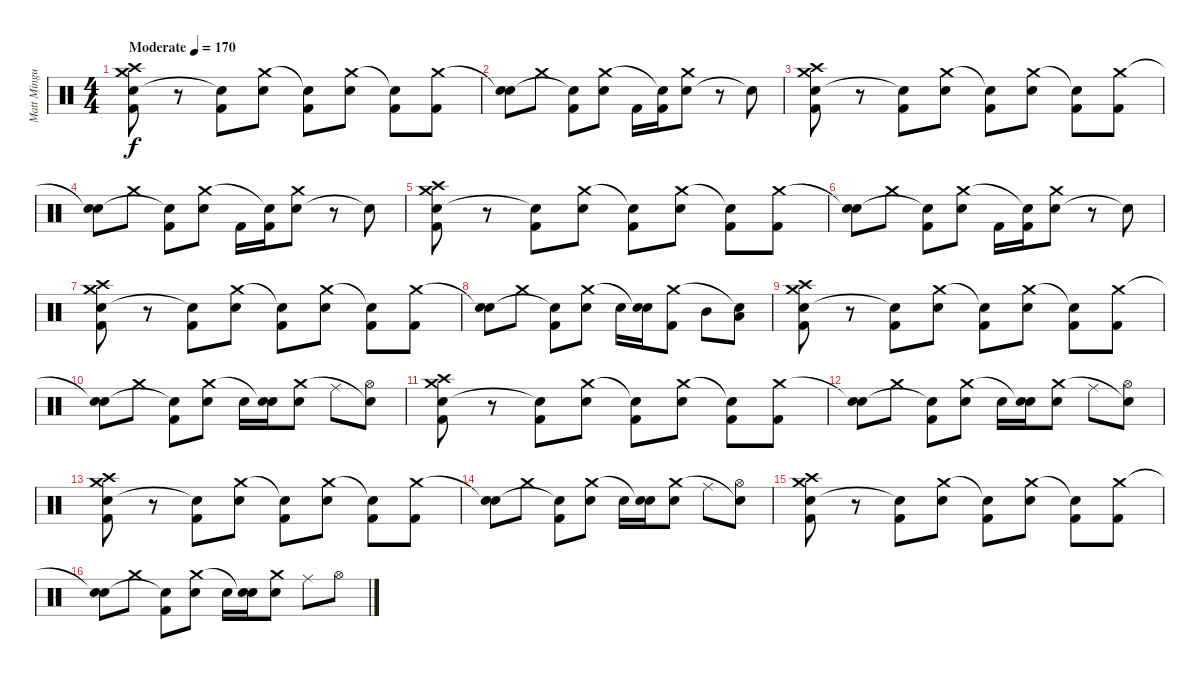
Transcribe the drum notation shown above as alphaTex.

\track ("Matt Mingus" "Matt Mingu") {instrument percussion}
\staff {score}
\articulation defaults
\ts (4 4)
\tempo (170 "Moderate")
\clef neutral
\ks c
("Crash high (hit)" "Electric Snare (hit)" "Crash medium (hit)" "Kick (hit) 2").8{dy f} r.8 ("Kick (hit) 2" "Snare (hit)"{t}).8 ("Electric Snare (hit)" "Crash medium (hit)").8 ("Kick (hit) 2" "Snare (hit)"{t}).8 ("Electric Snare (hit)" "Crash medium (hit)").8 ("Kick (hit) 2" "Snare (hit)"{t}).8 ("Kick (hit) 2" "Crash medium (hit)").8 |
("Electric Snare (hit)" "Snare (hit)"{t}).8 "Crash medium (hit)".8 ("Kick (hit) 2" "Snare (hit)"{t}).8 ("Electric Snare (hit)" "Crash medium (hit)").8 "Kick (hit) 2".16 ("Kick (hit) 2" "Snare (hit)"{t}).16 ("Electric Snare (hit)" "Crash medium (hit)").8 r.8 "Snare (hit)"{t}.8 |
("Crash high (hit)" "Electric Snare (hit)" "Crash medium (hit)" "Kick (hit) 2").8 r.8 ("Kick (hit) 2" "Snare (hit)"{t}).8 ("Electric Snare (hit)" "Crash medium (hit)").8 ("Kick (hit) 2" "Snare (hit)"{t}).8 ("Electric Snare (hit)" "Crash medium (hit)").8 ("Kick (hit) 2" "Snare (hit)"{t}).8 ("Kick (hit) 2" "Crash medium (hit)").8 |
("Electric Snare (hit)" "Snare (hit)"{t}).8 "Crash medium (hit)".8 ("Kick (hit) 2" "Snare (hit)"{t}).8 ("Electric Snare (hit)" "Crash medium (hit)").8 "Kick (hit) 2".16 ("Kick (hit) 2" "Snare (hit)"{t}).16 ("Electric Snare (hit)" "Crash medium (hit)").8 r.8 "Snare (hit)"{t}.8 |
("Crash high (hit)" "Electric Snare (hit)" "Crash medium (hit)" "Kick (hit) 2").8 r.8 ("Kick (hit) 2" "Snare (hit)"{t}).8 ("Electric Snare (hit)" "Crash medium (hit)").8 ("Kick (hit) 2" "Snare (hit)"{t}).8 ("Electric Snare (hit)" "Crash medium (hit)").8 ("Kick (hit) 2" "Snare (hit)"{t}).8 ("Kick (hit) 2" "Crash medium (hit)").8 |
("Electric Snare (hit)" "Snare (hit)"{t}).8 "Crash medium (hit)".8 ("Kick (hit) 2" "Snare (hit)"{t}).8 ("Electric Snare (hit)" "Crash medium (hit)").8 "Kick (hit) 2".16 ("Kick (hit) 2" "Snare (hit)"{t}).16 ("Electric Snare (hit)" "Crash medium (hit)").8 r.8 "Snare (hit)"{t}.8 |
("Crash high (hit)" "Electric Snare (hit)" "Crash medium (hit)" "Kick (hit) 2").8 r.8 ("Kick (hit) 2" "Snare (hit)"{t}).8 ("Electric Snare (hit)" "Crash medium (hit)").8 ("Kick (hit) 2" "Snare (hit)"{t}).8 ("Electric Snare (hit)" "Crash medium (hit)").8 ("Kick (hit) 2" "Snare (hit)"{t}).8 ("Kick (hit) 2" "Crash medium (hit)").8 |
("Electric Snare (hit)" "Snare (hit)"{t}).8 "Crash medium (hit)".8 ("Kick (hit) 2" "Snare (hit)"{t}).8 ("Electric Snare (hit)" "Crash medium (hit)").8 "Electric Snare (hit)".16 ("Electric Snare (hit)" "Snare (hit)"{t}).16 ("Kick (hit) 2" "Crash medium (hit)").8 "Mid Tom (hit)".8 ("Low Tom (hit)" "Snare (hit)"{t}).8 |
("Crash high (hit)" "Electric Snare (hit)" "Crash medium (hit)" "Kick (hit) 2").8 r.8 ("Kick (hit) 2" "Snare (hit)"{t}).8 ("Electric Snare (hit)" "Crash medium (hit)").8 ("Kick (hit) 2" "Snare (hit)"{t}).8 ("Electric Snare (hit)" "Crash medium (hit)").8 ("Kick (hit) 2" "Snare (hit)"{t}).8 ("Kick (hit) 2" "Crash medium (hit)").8 |
("Electric Snare (hit)" "Snare (hit)"{t}).8 "Crash medium (hit)".8 ("Kick (hit) 2" "Snare (hit)"{t}).8 ("Electric Snare (hit)" "Crash medium (hit)").8 "Electric Snare (hit)".16 ("Electric Snare (hit)" "Snare (hit)"{t}).16 ("Electric Snare (hit)" "Crash medium (hit)").8 "Ride (middle)".8 ("Hi-Hat (open)" "Snare (hit)"{t}).8 |
("Crash high (hit)" "Electric Snare (hit)" "Crash medium (hit)" "Kick (hit) 2").8 r.8 ("Kick (hit) 2" "Snare (hit)"{t}).8 ("Electric Snare (hit)" "Crash medium (hit)").8 ("Kick (hit) 2" "Snare (hit)"{t}).8 ("Electric Snare (hit)" "Crash medium (hit)").8 ("Kick (hit) 2" "Snare (hit)"{t}).8 ("Kick (hit) 2" "Crash medium (hit)").8 |
("Electric Snare (hit)" "Snare (hit)"{t}).8 "Crash medium (hit)".8 ("Kick (hit) 2" "Snare (hit)"{t}).8 ("Electric Snare (hit)" "Crash medium (hit)").8 "Electric Snare (hit)".16 ("Electric Snare (hit)" "Snare (hit)"{t}).16 ("Electric Snare (hit)" "Crash medium (hit)").8 "Ride (middle)".8 ("Hi-Hat (open)" "Snare (hit)"{t}).8 |
("Crash high (hit)" "Electric Snare (hit)" "Crash medium (hit)" "Kick (hit) 2").8 r.8 ("Kick (hit) 2" "Snare (hit)"{t}).8 ("Electric Snare (hit)" "Crash medium (hit)").8 ("Kick (hit) 2" "Snare (hit)"{t}).8 ("Electric Snare (hit)" "Crash medium (hit)").8 ("Kick (hit) 2" "Snare (hit)"{t}).8 ("Kick (hit) 2" "Crash medium (hit)").8 |
("Electric Snare (hit)" "Snare (hit)"{t}).8 "Crash medium (hit)".8 ("Kick (hit) 2" "Snare (hit)"{t}).8 ("Electric Snare (hit)" "Crash medium (hit)").8 "Electric Snare (hit)".16 ("Electric Snare (hit)" "Snare (hit)"{t}).16 ("Electric Snare (hit)" "Crash medium (hit)").8 "Ride (middle)".8 ("Hi-Hat (open)" "Snare (hit)"{t}).8 |
("Crash high (hit)" "Electric Snare (hit)" "Crash medium (hit)" "Kick (hit) 2").8 r.8 ("Kick (hit) 2" "Snare (hit)"{t}).8 ("Electric Snare (hit)" "Crash medium (hit)").8 ("Kick (hit) 2" "Snare (hit)"{t}).8 ("Electric Snare (hit)" "Crash medium (hit)").8 ("Kick (hit) 2" "Snare (hit)"{t}).8 ("Kick (hit) 2" "Crash medium (hit)").8 |
("Electric Snare (hit)" "Snare (hit)"{t}).8 "Crash medium (hit)".8 ("Kick (hit) 2" "Snare (hit)"{t}).8 ("Electric Snare (hit)" "Crash medium (hit)").8 "Electric Snare (hit)".16 ("Electric Snare (hit)" "Snare (hit)"{t}).16 ("Electric Snare (hit)" "Crash medium (hit)").8 "Ride (middle)".8 "Hi-Hat (open)".8
